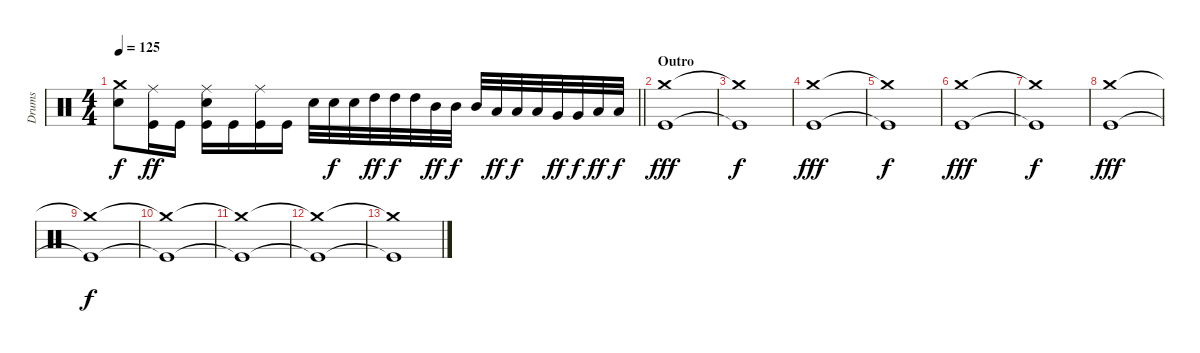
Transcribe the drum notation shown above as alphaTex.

\track ("Drums" "Drums") {instrument percussion}
\staff {score}
\articulation defaults
\ts (4 4)
\tempo 125
\clef neutral
\barLineRight lightlight
\ks c
("Crash medium (hit)" "Snare (hit) 2").8{dy f} ("Ride (middle)" "Kick (hit)").16{dy ff} "Kick (hit)".16 ("Ride (middle)" "Snare (hit) 2" "Kick (hit)").16 "Kick (hit)".16 ("Ride (middle)" "Kick (hit)").16 "Kick (hit)".16 "Snare (hit) 2".32 "Snare (hit) 2".32{dy f} "Snare (hit) 2".32 "High Tom (hit)".32{dy ff} "High Tom (hit)".32{dy f} "High Tom (hit)".32 "Mid Tom (hit)".32{dy ff} "Mid Tom (hit)".32{dy f} "Mid Tom (hit)".32 "Low Tom (hit)".32{dy ff} "Low Tom (hit)".32{dy f} "Low Tom (hit)".32 "Very Low Tom (hit)".32{dy ff} "Very Low Tom (hit)".32{dy f} "Low Floor Tom (hit)".32{dy ff} "Low Floor Tom (hit)".32{dy f} |
\section ("" "Outro")
("Crash medium (hit)" "Kick (hit)").1{dy fff} |
("Crash medium (hit)"{t} "Kick (hit)"{t}).1{dy f} |
("Crash medium (hit)" "Kick (hit)").1{dy fff} |
("Crash medium (hit)"{t} "Kick (hit)"{t}).1{dy f} |
("Crash medium (hit)" "Kick (hit)").1{dy fff} |
("Crash medium (hit)"{t} "Kick (hit)"{t}).1{dy f} |
("Crash medium (hit)" "Kick (hit)").1{dy fff} |
("Crash medium (hit)"{t} "Kick (hit)"{t}).1{dy f} |
("Crash medium (hit)"{t} "Kick (hit)"{t}).1 |
("Crash medium (hit)"{t} "Kick (hit)"{t}).1 |
("Crash medium (hit)"{t} "Kick (hit)"{t}).1 |
("Crash medium (hit)"{t} "Kick (hit)"{t}).1
